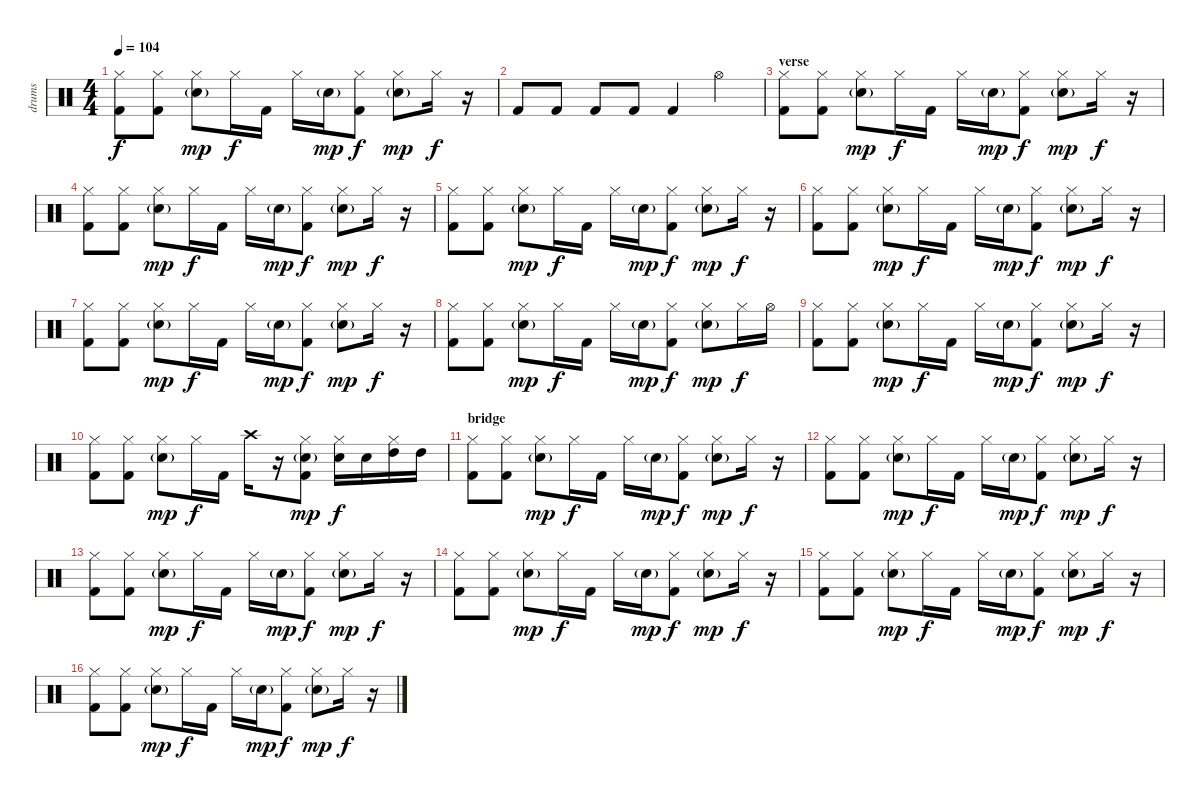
\track ("drums" "drums") {instrument percussion}
\staff {score}
\articulation defaults
\ts (4 4)
\tempo 104
\clef neutral
\ks c
("Hi-Hat (closed)" "Kick (hit) 2").8{dy f} ("Hi-Hat (closed)" "Kick (hit) 2").8 ("Hi-Hat (closed)" "Electric Snare (hit)"{g}).8{dy mp} "Hi-Hat (closed)".16{dy f} "Kick (hit) 2".16 "Hi-Hat (closed)".16 "Electric Snare (hit)"{g}.16{dy mp} ("Hi-Hat (closed)" "Kick (hit) 2").8{dy f} ("Hi-Hat (closed)" "Electric Snare (hit)"{g}).8{dy mp} "Hi-Hat (closed)".16{dy f} r.16 |
"Kick (hit) 2".8 "Kick (hit) 2".8 "Kick (hit) 2".8 "Kick (hit) 2".8 "Kick (hit) 2".4 "Hi-Hat (open)".4 |
\section ("" "verse")
("Hi-Hat (closed)" "Kick (hit) 2").8 ("Hi-Hat (closed)" "Kick (hit) 2").8 ("Hi-Hat (closed)" "Electric Snare (hit)"{g}).8{dy mp} "Hi-Hat (closed)".16{dy f} "Kick (hit) 2".16 "Hi-Hat (closed)".16 "Electric Snare (hit)"{g}.16{dy mp} ("Hi-Hat (closed)" "Kick (hit) 2").8{dy f} ("Hi-Hat (closed)" "Electric Snare (hit)"{g}).8{dy mp} "Hi-Hat (closed)".16{dy f} r.16 |
("Hi-Hat (closed)" "Kick (hit) 2").8 ("Hi-Hat (closed)" "Kick (hit) 2").8 ("Hi-Hat (closed)" "Electric Snare (hit)"{g}).8{dy mp} "Hi-Hat (closed)".16{dy f} "Kick (hit) 2".16 "Hi-Hat (closed)".16 "Electric Snare (hit)"{g}.16{dy mp} ("Hi-Hat (closed)" "Kick (hit) 2").8{dy f} ("Hi-Hat (closed)" "Electric Snare (hit)"{g}).8{dy mp} "Hi-Hat (closed)".16{dy f} r.16 |
("Hi-Hat (closed)" "Kick (hit) 2").8 ("Hi-Hat (closed)" "Kick (hit) 2").8 ("Hi-Hat (closed)" "Electric Snare (hit)"{g}).8{dy mp} "Hi-Hat (closed)".16{dy f} "Kick (hit) 2".16 "Hi-Hat (closed)".16 "Electric Snare (hit)"{g}.16{dy mp} ("Hi-Hat (closed)" "Kick (hit) 2").8{dy f} ("Hi-Hat (closed)" "Electric Snare (hit)"{g}).8{dy mp} "Hi-Hat (closed)".16{dy f} r.16 |
("Hi-Hat (closed)" "Kick (hit) 2").8 ("Hi-Hat (closed)" "Kick (hit) 2").8 ("Hi-Hat (closed)" "Electric Snare (hit)"{g}).8{dy mp} "Hi-Hat (closed)".16{dy f} "Kick (hit) 2".16 "Hi-Hat (closed)".16 "Electric Snare (hit)"{g}.16{dy mp} ("Hi-Hat (closed)" "Kick (hit) 2").8{dy f} ("Hi-Hat (closed)" "Electric Snare (hit)"{g}).8{dy mp} "Hi-Hat (closed)".16{dy f} r.16 |
("Hi-Hat (closed)" "Kick (hit) 2").8 ("Hi-Hat (closed)" "Kick (hit) 2").8 ("Hi-Hat (closed)" "Electric Snare (hit)"{g}).8{dy mp} "Hi-Hat (closed)".16{dy f} "Kick (hit) 2".16 "Hi-Hat (closed)".16 "Electric Snare (hit)"{g}.16{dy mp} ("Hi-Hat (closed)" "Kick (hit) 2").8{dy f} ("Hi-Hat (closed)" "Electric Snare (hit)"{g}).8{dy mp} "Hi-Hat (closed)".16{dy f} r.16 |
("Hi-Hat (closed)" "Kick (hit) 2").8 ("Hi-Hat (closed)" "Kick (hit) 2").8 ("Hi-Hat (closed)" "Electric Snare (hit)"{g}).8{dy mp} "Hi-Hat (closed)".16{dy f} "Kick (hit) 2".16 "Hi-Hat (closed)".16 "Electric Snare (hit)"{g}.16{dy mp} ("Hi-Hat (closed)" "Kick (hit) 2").8{dy f} ("Hi-Hat (closed)" "Electric Snare (hit)"{g}).8{dy mp} "Hi-Hat (closed)".16{dy f} "Hi-Hat (open)".16 |
("Hi-Hat (closed)" "Kick (hit) 2").8 ("Hi-Hat (closed)" "Kick (hit) 2").8 ("Hi-Hat (closed)" "Electric Snare (hit)"{g}).8{dy mp} "Hi-Hat (closed)".16{dy f} "Kick (hit) 2".16 "Hi-Hat (closed)".16 "Electric Snare (hit)"{g}.16{dy mp} ("Hi-Hat (closed)" "Kick (hit) 2").8{dy f} ("Hi-Hat (closed)" "Electric Snare (hit)"{g}).8{dy mp} "Hi-Hat (closed)".16{dy f} r.16 |
("Hi-Hat (closed)" "Kick (hit) 2").8 ("Hi-Hat (closed)" "Kick (hit) 2").8 ("Hi-Hat (closed)" "Electric Snare (hit)"{g}).8{dy mp} "Hi-Hat (closed)".16{dy f} "Kick (hit) 2".16 "Crash high (hit)".16 r.16 ("Hi-Hat (closed)" "Electric Snare (hit)"{g} "Kick (hit) 2").8{dy mp} ("Hi-Hat (closed)" "Electric Snare (hit)").16{dy f} "Electric Snare (hit)".16 ("Hi-Hat (closed)" "High Tom (hit)").16 "High Tom (hit)".16 |
\section ("" "bridge")
("Hi-Hat (closed)" "Kick (hit) 2").8 ("Hi-Hat (closed)" "Kick (hit) 2").8 ("Hi-Hat (closed)" "Electric Snare (hit)"{g}).8{dy mp} "Hi-Hat (closed)".16{dy f} "Kick (hit) 2".16 "Hi-Hat (closed)".16 "Electric Snare (hit)"{g}.16{dy mp} ("Hi-Hat (closed)" "Kick (hit) 2").8{dy f} ("Hi-Hat (closed)" "Electric Snare (hit)"{g}).8{dy mp} "Hi-Hat (closed)".16{dy f} r.16 |
("Hi-Hat (closed)" "Kick (hit) 2").8 ("Hi-Hat (closed)" "Kick (hit) 2").8 ("Hi-Hat (closed)" "Electric Snare (hit)"{g}).8{dy mp} "Hi-Hat (closed)".16{dy f} "Kick (hit) 2".16 "Hi-Hat (closed)".16 "Electric Snare (hit)"{g}.16{dy mp} ("Hi-Hat (closed)" "Kick (hit) 2").8{dy f} ("Hi-Hat (closed)" "Electric Snare (hit)"{g}).8{dy mp} "Hi-Hat (closed)".16{dy f} r.16 |
("Hi-Hat (closed)" "Kick (hit) 2").8 ("Hi-Hat (closed)" "Kick (hit) 2").8 ("Hi-Hat (closed)" "Electric Snare (hit)"{g}).8{dy mp} "Hi-Hat (closed)".16{dy f} "Kick (hit) 2".16 "Hi-Hat (closed)".16 "Electric Snare (hit)"{g}.16{dy mp} ("Hi-Hat (closed)" "Kick (hit) 2").8{dy f} ("Hi-Hat (closed)" "Electric Snare (hit)"{g}).8{dy mp} "Hi-Hat (closed)".16{dy f} r.16 |
("Hi-Hat (closed)" "Kick (hit) 2").8 ("Hi-Hat (closed)" "Kick (hit) 2").8 ("Hi-Hat (closed)" "Electric Snare (hit)"{g}).8{dy mp} "Hi-Hat (closed)".16{dy f} "Kick (hit) 2".16 "Hi-Hat (closed)".16 "Electric Snare (hit)"{g}.16{dy mp} ("Hi-Hat (closed)" "Kick (hit) 2").8{dy f} ("Hi-Hat (closed)" "Electric Snare (hit)"{g}).8{dy mp} "Hi-Hat (closed)".16{dy f} r.16 |
("Hi-Hat (closed)" "Kick (hit) 2").8 ("Hi-Hat (closed)" "Kick (hit) 2").8 ("Hi-Hat (closed)" "Electric Snare (hit)"{g}).8{dy mp} "Hi-Hat (closed)".16{dy f} "Kick (hit) 2".16 "Hi-Hat (closed)".16 "Electric Snare (hit)"{g}.16{dy mp} ("Hi-Hat (closed)" "Kick (hit) 2").8{dy f} ("Hi-Hat (closed)" "Electric Snare (hit)"{g}).8{dy mp} "Hi-Hat (closed)".16{dy f} r.16 |
("Hi-Hat (closed)" "Kick (hit) 2").8 ("Hi-Hat (closed)" "Kick (hit) 2").8 ("Hi-Hat (closed)" "Electric Snare (hit)"{g}).8{dy mp} "Hi-Hat (closed)".16{dy f} "Kick (hit) 2".16 "Hi-Hat (closed)".16 "Electric Snare (hit)"{g}.16{dy mp} ("Hi-Hat (closed)" "Kick (hit) 2").8{dy f} ("Hi-Hat (closed)" "Electric Snare (hit)"{g}).8{dy mp} "Hi-Hat (closed)".16{dy f} r.16
